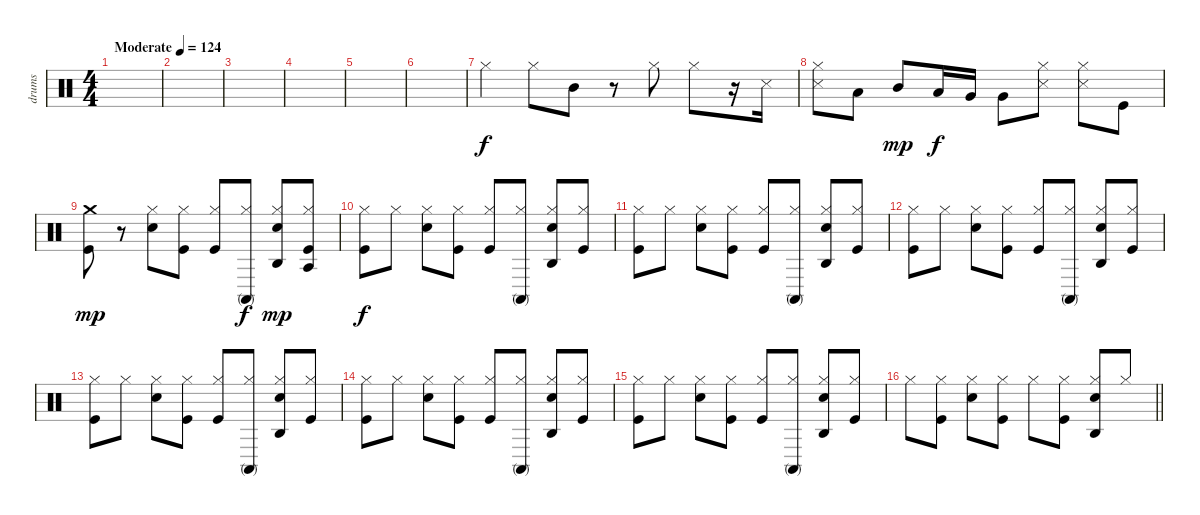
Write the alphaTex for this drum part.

\track ("drums" "drums") {instrument percussion}
\staff {score}
\articulation defaults
\ts (4 4)
\tempo (124 "Moderate")
\clef neutral
\ks c
|
|
|
|
|
|
"Hi-Hat (closed)".4 "Hi-Hat (closed)".8 "Mid Tom (hit)".8{dy f} r.8 "Hi-Hat (closed)".8 "Hi-Hat (closed)".8 r.16 "Metronome (hit)".16 |
("Metronome (hit)" "Hi-Hat (closed)").8 "Low Tom (hit)".8 "Mid Tom (hit)".8{dy mp} "Low Floor Tom (hit)".16{dy f} "Very Low Tom (hit)".16 "Very Low Tom (hit)".8 ("Metronome (hit)" "Hi-Hat (closed)").8 ("Metronome (hit)" "Hi-Hat (closed)").8 "Kick (hit)".8 |
("Crash medium (hit)" "Kick (hit)").8{dy mp} r.8 ("Electric Snare (hit)" "Hi-Hat (closed)").8 ("Hi-Hat (closed)" "Kick (hit)").8 ("Hi-Hat (closed)" "Kick (hit)").8 ("Conga high (mute)" "Hi-Hat (closed)").8{dy f} ("Agogo high (hit)" "Electric Snare (hit)" "Hi-Hat (closed)").8{dy mp} ("Agogo tow (hit)" "Hi-Hat (closed)" "Kick (hit)").8 |
("Hi-Hat (closed)" "Kick (hit)").8{dy f} "Hi-Hat (closed)".8 ("Electric Snare (hit)" "Hi-Hat (closed)").8 ("Hi-Hat (closed)" "Kick (hit)").8 ("Hi-Hat (closed)" "Kick (hit)").8 ("Conga high (mute)" "Hi-Hat (closed)").8 ("Agogo high (hit)" "Electric Snare (hit)" "Hi-Hat (closed)").8 ("Hi-Hat (closed)" "Kick (hit)").8 |
("Hi-Hat (closed)" "Kick (hit)").8 "Hi-Hat (closed)".8 ("Electric Snare (hit)" "Hi-Hat (closed)").8 ("Hi-Hat (closed)" "Kick (hit)").8 ("Hi-Hat (closed)" "Kick (hit)").8 ("Conga high (mute)" "Hi-Hat (closed)").8 ("Agogo high (hit)" "Electric Snare (hit)" "Hi-Hat (closed)").8 ("Hi-Hat (closed)" "Kick (hit)").8 |
("Hi-Hat (closed)" "Kick (hit)").8 "Hi-Hat (closed)".8 ("Electric Snare (hit)" "Hi-Hat (closed)").8 ("Hi-Hat (closed)" "Kick (hit)").8 ("Hi-Hat (closed)" "Kick (hit)").8 ("Conga high (mute)" "Hi-Hat (closed)").8 ("Agogo high (hit)" "Electric Snare (hit)" "Hi-Hat (closed)").8 ("Hi-Hat (closed)" "Kick (hit)").8 |
("Hi-Hat (closed)" "Kick (hit)").8 "Hi-Hat (closed)".8 ("Electric Snare (hit)" "Hi-Hat (closed)").8 ("Hi-Hat (closed)" "Kick (hit)").8 ("Hi-Hat (closed)" "Kick (hit)").8 ("Conga high (mute)" "Hi-Hat (closed)").8 ("Agogo high (hit)" "Electric Snare (hit)" "Hi-Hat (closed)").8 ("Hi-Hat (closed)" "Kick (hit)").8 |
("Hi-Hat (closed)" "Kick (hit)").8 "Hi-Hat (closed)".8 ("Electric Snare (hit)" "Hi-Hat (closed)").8 ("Hi-Hat (closed)" "Kick (hit)").8 ("Hi-Hat (closed)" "Kick (hit)").8 ("Conga high (mute)" "Hi-Hat (closed)").8 ("Agogo high (hit)" "Electric Snare (hit)" "Hi-Hat (closed)").8 ("Hi-Hat (closed)" "Kick (hit)").8 |
("Hi-Hat (closed)" "Kick (hit)").8 "Hi-Hat (closed)".8 ("Electric Snare (hit)" "Hi-Hat (closed)").8 ("Hi-Hat (closed)" "Kick (hit)").8 ("Hi-Hat (closed)" "Kick (hit)").8 ("Conga high (mute)" "Hi-Hat (closed)").8 ("Agogo high (hit)" "Electric Snare (hit)" "Hi-Hat (closed)").8 ("Hi-Hat (closed)" "Kick (hit)").8 |
\barLineRight lightlight "Hi-Hat (closed)".8
("Hi-Hat (closed)" "Kick (hit)").8 ("Electric Snare (hit)" "Hi-Hat (closed)").8 ("Hi-Hat (closed)" "Kick (hit)").8 "Hi-Hat (closed)".8 ("Hi-Hat (closed)" "Kick (hit)").8 ("Agogo high (hit)" "Electric Snare (hit)" "Hi-Hat (closed)").8 "Hi-Hat (closed)".8
